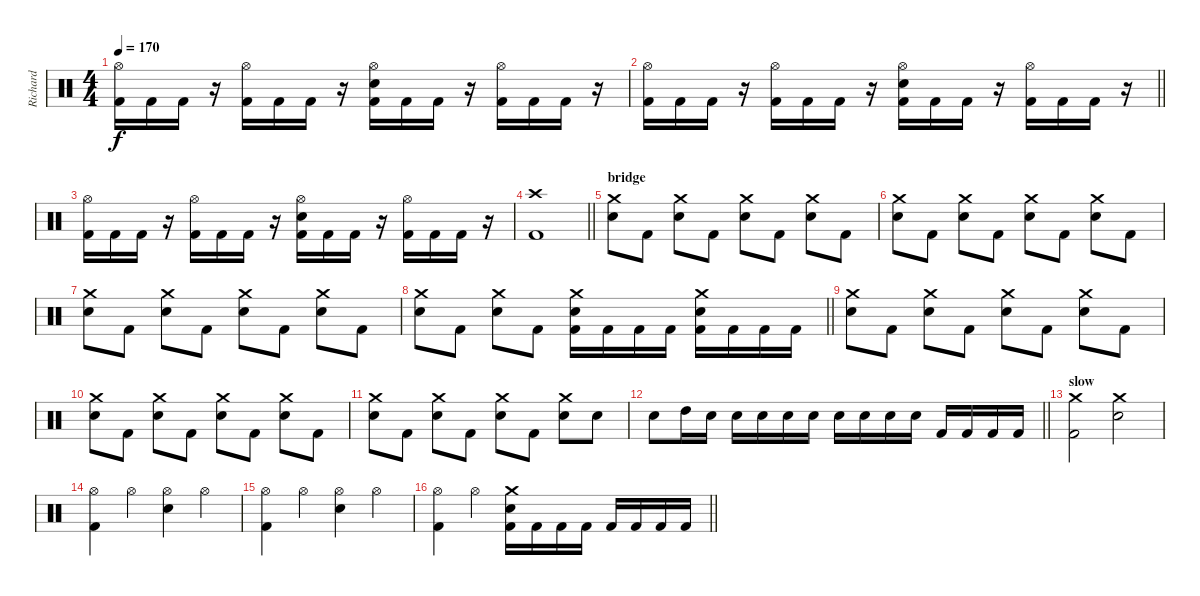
\track ("Richard" "Richard") {instrument percussion}
\staff {score}
\articulation defaults
\ts (4 4)
\tempo 170
\clef neutral
\ks c
("Hi-Hat (open)" "Kick (hit) 2").16{dy f} "Kick (hit) 2".16 "Kick (hit) 2".16 r.16 ("Hi-Hat (open)" "Kick (hit) 2").16 "Kick (hit) 2".16 "Kick (hit) 2".16 r.16 ("Electric Snare (hit)" "Hi-Hat (open)" "Kick (hit) 2").16 "Kick (hit) 2".16 "Kick (hit) 2".16 r.16 ("Hi-Hat (open)" "Kick (hit) 2").16 "Kick (hit) 2".16 "Kick (hit) 2".16 r.16 |
\barLineRight lightlight
("Hi-Hat (open)" "Kick (hit) 2").16 "Kick (hit) 2".16 "Kick (hit) 2".16 r.16 ("Hi-Hat (open)" "Kick (hit) 2").16 "Kick (hit) 2".16 "Kick (hit) 2".16 r.16 ("Electric Snare (hit)" "Hi-Hat (open)" "Kick (hit) 2").16 "Kick (hit) 2".16 "Kick (hit) 2".16 r.16 ("Hi-Hat (open)" "Kick (hit) 2").16 "Kick (hit) 2".16 "Kick (hit) 2".16 r.16 |
("Hi-Hat (open)" "Kick (hit) 2").16 "Kick (hit) 2".16 "Kick (hit) 2".16 r.16 ("Hi-Hat (open)" "Kick (hit) 2").16 "Kick (hit) 2".16 "Kick (hit) 2".16 r.16 ("Electric Snare (hit)" "Hi-Hat (open)" "Kick (hit) 2").16 "Kick (hit) 2".16 "Kick (hit) 2".16 r.16 ("Hi-Hat (open)" "Kick (hit) 2").16 "Kick (hit) 2".16 "Kick (hit) 2".16 r.16 |
\barLineRight lightlight
("Crash high (hit)" "Kick (hit) 2").1 |
\section ("" "bridge")
("Crash medium (hit)" "Electric Snare (hit)").8 "Kick (hit) 2".8 ("Crash medium (hit)" "Electric Snare (hit)").8 "Kick (hit) 2".8 ("Crash medium (hit)" "Electric Snare (hit)").8 "Kick (hit) 2".8 ("Crash medium (hit)" "Electric Snare (hit)").8 "Kick (hit) 2".8 |
("Crash medium (hit)" "Electric Snare (hit)").8 "Kick (hit) 2".8 ("Crash medium (hit)" "Electric Snare (hit)").8 "Kick (hit) 2".8 ("Crash medium (hit)" "Electric Snare (hit)").8 "Kick (hit) 2".8 ("Crash medium (hit)" "Electric Snare (hit)").8 "Kick (hit) 2".8 |
("Crash medium (hit)" "Electric Snare (hit)").8 "Kick (hit) 2".8 ("Crash medium (hit)" "Electric Snare (hit)").8 "Kick (hit) 2".8 ("Crash medium (hit)" "Electric Snare (hit)").8 "Kick (hit) 2".8 ("Crash medium (hit)" "Electric Snare (hit)").8 "Kick (hit) 2".8 |
\barLineRight lightlight
("Crash medium (hit)" "Electric Snare (hit)").8 "Kick (hit) 2".8 ("Crash medium (hit)" "Electric Snare (hit)").8 "Kick (hit) 2".8 ("Crash medium (hit)" "Electric Snare (hit)" "Kick (hit) 2").16 "Kick (hit) 2".16 "Kick (hit) 2".16 "Kick (hit) 2".16 ("Crash medium (hit)" "Electric Snare (hit)" "Kick (hit) 2").16 "Kick (hit) 2".16 "Kick (hit) 2".16 "Kick (hit) 2".16 |
("Crash medium (hit)" "Electric Snare (hit)").8 "Kick (hit) 2".8 ("Crash medium (hit)" "Electric Snare (hit)").8 "Kick (hit) 2".8 ("Crash medium (hit)" "Electric Snare (hit)").8 "Kick (hit) 2".8 ("Crash medium (hit)" "Electric Snare (hit)").8 "Kick (hit) 2".8 |
("Crash medium (hit)" "Electric Snare (hit)").8 "Kick (hit) 2".8 ("Crash medium (hit)" "Electric Snare (hit)").8 "Kick (hit) 2".8 ("Crash medium (hit)" "Electric Snare (hit)").8 "Kick (hit) 2".8 ("Crash medium (hit)" "Electric Snare (hit)").8 "Kick (hit) 2".8 |
("Crash medium (hit)" "Electric Snare (hit)").8 "Kick (hit) 2".8 ("Crash medium (hit)" "Electric Snare (hit)").8 "Kick (hit) 2".8 ("Crash medium (hit)" "Electric Snare (hit)").8 "Kick (hit) 2".8 ("Crash medium (hit)" "Electric Snare (hit)").8 "Electric Snare (hit)".8 |
\barLineRight lightlight "Electric Snare (hit)".8 "High Tom (hit)".16 "Electric Snare (hit)".16 "Electric Snare (hit)".16 "Electric Snare (hit)".16 "Electric Snare (hit)".16 "Electric Snare (hit)".16 "Electric Snare (hit)".16 "Electric Snare (hit)".16 "Electric Snare (hit)".16 "Electric Snare (hit)".16 "Kick (hit) 2".16 "Kick (hit) 2".16 "Kick (hit) 2".16 "Kick (hit) 2".16
|
\section ("" "slow")
("Crash medium (hit)" "Kick (hit) 2").2 ("Crash medium (hit)" "Electric Snare (hit)").2 |
("Hi-Hat (open)" "Kick (hit) 2").4 "Hi-Hat (open)".4 ("Hi-Hat (open)" "Electric Snare (hit)").4 "Hi-Hat (open)".4 |
("Hi-Hat (open)" "Kick (hit) 2").4 "Hi-Hat (open)".4 ("Hi-Hat (open)" "Electric Snare (hit)").4 "Hi-Hat (open)".4 |
\barLineRight lightlight
("Hi-Hat (open)" "Kick (hit) 2").4 "Hi-Hat (open)".4 ("Crash medium (hit)" "Electric Snare (hit)" "Kick (hit) 2").16 "Kick (hit) 2".16 "Kick (hit) 2".16 "Kick (hit) 2".16 "Kick (hit) 2".16 "Kick (hit) 2".16 "Kick (hit) 2".16 "Kick (hit) 2".16
